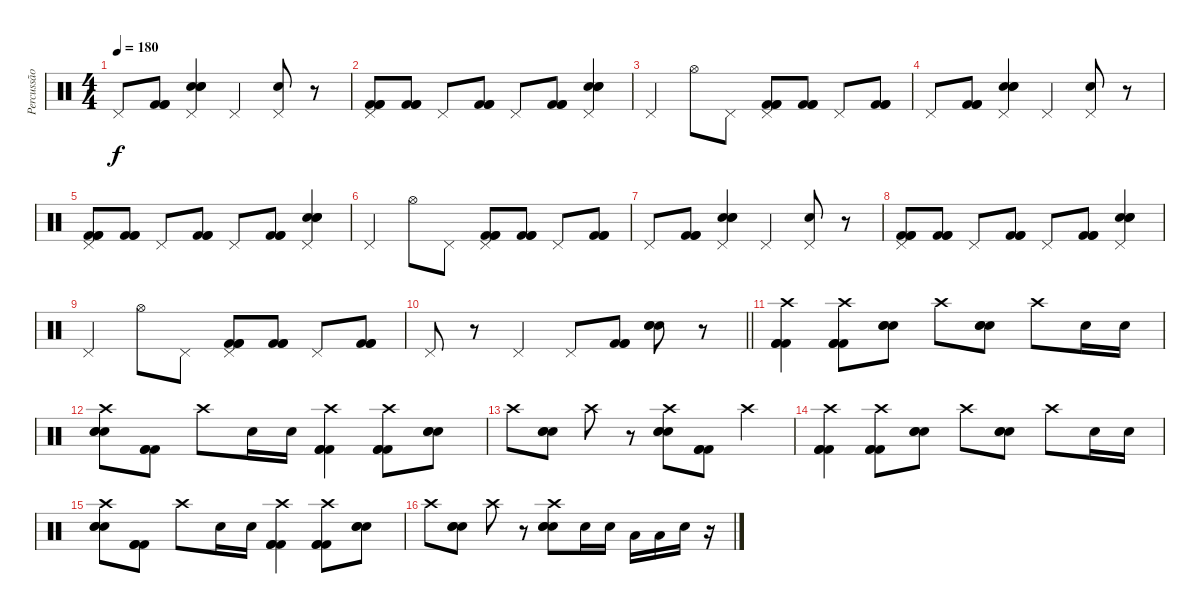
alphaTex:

\track ("Percussão" "Percussão") {instrument percussion}
\staff {score}
\articulation defaults
\ts (4 4)
\tempo 180
\clef neutral
\ks c "Pedal Hi-Hat (hit)".8{dy f}
("Kick (hit) 2" "Kick (hit) 2" "Kick (hit) 2").8 ("Pedal Hi-Hat (hit)" "Electric Snare (hit)" "Electric Snare (hit)" "Electric Snare (hit)").4 "Pedal Hi-Hat (hit)".4 ("Pedal Hi-Hat (hit)" "Electric Snare (hit)").8 r.8 |
("Pedal Hi-Hat (hit)" "Kick (hit) 2" "Kick (hit) 2" "Kick (hit) 2").8 ("Kick (hit) 2" "Kick (hit) 2" "Kick (hit) 2").8 "Pedal Hi-Hat (hit)".8 ("Kick (hit) 2" "Kick (hit) 2" "Kick (hit) 2").8 "Pedal Hi-Hat (hit)".8 ("Kick (hit) 2" "Kick (hit) 2" "Kick (hit) 2").8 ("Pedal Hi-Hat (hit)" "Electric Snare (hit)" "Electric Snare (hit)" "Electric Snare (hit)").4 |
"Pedal Hi-Hat (hit)".4 "Hi-Hat (open)".8 "Pedal Hi-Hat (hit)".8 ("Pedal Hi-Hat (hit)" "Kick (hit) 2" "Kick (hit) 2" "Kick (hit) 2").8 ("Kick (hit) 2" "Kick (hit) 2" "Kick (hit) 2").8 "Pedal Hi-Hat (hit)".8 ("Kick (hit) 2" "Kick (hit) 2" "Kick (hit) 2").8 |
"Pedal Hi-Hat (hit)".8 ("Kick (hit) 2" "Kick (hit) 2" "Kick (hit) 2").8 ("Pedal Hi-Hat (hit)" "Electric Snare (hit)" "Electric Snare (hit)" "Electric Snare (hit)").4 "Pedal Hi-Hat (hit)".4 ("Pedal Hi-Hat (hit)" "Electric Snare (hit)").8 r.8 |
("Pedal Hi-Hat (hit)" "Kick (hit) 2" "Kick (hit) 2" "Kick (hit) 2").8 ("Kick (hit) 2" "Kick (hit) 2" "Kick (hit) 2").8 "Pedal Hi-Hat (hit)".8 ("Kick (hit) 2" "Kick (hit) 2" "Kick (hit) 2").8 "Pedal Hi-Hat (hit)".8 ("Kick (hit) 2" "Kick (hit) 2" "Kick (hit) 2").8 ("Pedal Hi-Hat (hit)" "Electric Snare (hit)" "Electric Snare (hit)" "Electric Snare (hit)").4 |
"Pedal Hi-Hat (hit)".4 "Hi-Hat (open)".8 "Pedal Hi-Hat (hit)".8 ("Pedal Hi-Hat (hit)" "Kick (hit) 2" "Kick (hit) 2" "Kick (hit) 2").8 ("Kick (hit) 2" "Kick (hit) 2" "Kick (hit) 2").8 "Pedal Hi-Hat (hit)".8 ("Kick (hit) 2" "Kick (hit) 2" "Kick (hit) 2").8 |
"Pedal Hi-Hat (hit)".8 ("Kick (hit) 2" "Kick (hit) 2" "Kick (hit) 2").8 ("Pedal Hi-Hat (hit)" "Electric Snare (hit)" "Electric Snare (hit)" "Electric Snare (hit)").4 "Pedal Hi-Hat (hit)".4 ("Pedal Hi-Hat (hit)" "Electric Snare (hit)").8 r.8 |
("Pedal Hi-Hat (hit)" "Kick (hit) 2" "Kick (hit) 2" "Kick (hit) 2").8 ("Kick (hit) 2" "Kick (hit) 2" "Kick (hit) 2").8 "Pedal Hi-Hat (hit)".8 ("Kick (hit) 2" "Kick (hit) 2" "Kick (hit) 2").8 "Pedal Hi-Hat (hit)".8 ("Kick (hit) 2" "Kick (hit) 2" "Kick (hit) 2").8 ("Pedal Hi-Hat (hit)" "Electric Snare (hit)" "Electric Snare (hit)" "Electric Snare (hit)").4 |
"Pedal Hi-Hat (hit)".4 "Hi-Hat (open)".8 "Pedal Hi-Hat (hit)".8 ("Pedal Hi-Hat (hit)" "Kick (hit) 2" "Kick (hit) 2" "Kick (hit) 2").8 ("Kick (hit) 2" "Kick (hit) 2" "Kick (hit) 2").8 "Pedal Hi-Hat (hit)".8 ("Kick (hit) 2" "Kick (hit) 2" "Kick (hit) 2").8 |
\barLineRight lightlight "Pedal Hi-Hat (hit)".8
r.8 "Pedal Hi-Hat (hit)".4 "Pedal Hi-Hat (hit)".8 ("Kick (hit) 2" "Kick (hit) 2" "Kick (hit) 2").8 ("Electric Snare (hit)" "Electric Snare (hit)" "Electric Snare (hit)").8 r.8 |
\section ("" "")
("Crash high (hit)" "Kick (hit) 2" "Kick (hit) 2" "Kick (hit) 2").4 ("Crash high (hit)" "Kick (hit) 2" "Kick (hit) 2" "Kick (hit) 2").8 ("Electric Snare (hit)" "Electric Snare (hit)" "Electric Snare (hit)").8 "Crash high (hit)".8 ("Electric Snare (hit)" "Electric Snare (hit)" "Electric Snare (hit)").8 "Crash high (hit)".8 "Electric Snare (hit)".16 "Electric Snare (hit)".16 |
("Crash high (hit)" "Electric Snare (hit)" "Electric Snare (hit)" "Electric Snare (hit)").8 ("Kick (hit) 2" "Kick (hit) 2" "Kick (hit) 2").8 "Crash high (hit)".8 "Electric Snare (hit)".16 "Electric Snare (hit)".16 ("Crash high (hit)" "Kick (hit) 2" "Kick (hit) 2" "Kick (hit) 2").4 ("Crash high (hit)" "Kick (hit) 2" "Kick (hit) 2" "Kick (hit) 2").8 ("Electric Snare (hit)" "Electric Snare (hit)" "Electric Snare (hit)").8 |
"Crash high (hit)".8 ("Electric Snare (hit)" "Electric Snare (hit)" "Electric Snare (hit)").8 "Crash high (hit)".8 r.8 ("Crash high (hit)" "Electric Snare (hit)" "Electric Snare (hit)" "Electric Snare (hit)").8 ("Kick (hit) 2" "Kick (hit) 2" "Kick (hit) 2").8 "Crash high (hit)".4 |
("Crash high (hit)" "Kick (hit) 2" "Kick (hit) 2" "Kick (hit) 2").4 ("Crash high (hit)" "Kick (hit) 2" "Kick (hit) 2" "Kick (hit) 2").8 ("Electric Snare (hit)" "Electric Snare (hit)" "Electric Snare (hit)").8 "Crash high (hit)".8 ("Electric Snare (hit)" "Electric Snare (hit)" "Electric Snare (hit)").8 "Crash high (hit)".8 "Electric Snare (hit)".16 "Electric Snare (hit)".16 |
("Crash high (hit)" "Electric Snare (hit)" "Electric Snare (hit)" "Electric Snare (hit)").8 ("Kick (hit) 2" "Kick (hit) 2" "Kick (hit) 2").8 "Crash high (hit)".8 "Electric Snare (hit)".16 "Electric Snare (hit)".16 ("Crash high (hit)" "Kick (hit) 2" "Kick (hit) 2" "Kick (hit) 2").4 ("Crash high (hit)" "Kick (hit) 2" "Kick (hit) 2" "Kick (hit) 2").8 ("Electric Snare (hit)" "Electric Snare (hit)" "Electric Snare (hit)").8 |
"Crash high (hit)".8 ("Electric Snare (hit)" "Electric Snare (hit)" "Electric Snare (hit)").8 "Crash high (hit)".8 r.8 ("Crash high (hit)" "Electric Snare (hit)" "Electric Snare (hit)" "Electric Snare (hit)").8 "Electric Snare (hit)".16 "Electric Snare (hit)".16 "Low Tom (hit)".16 "Low Tom (hit)".16 "Electric Snare (hit)".16 r.16
